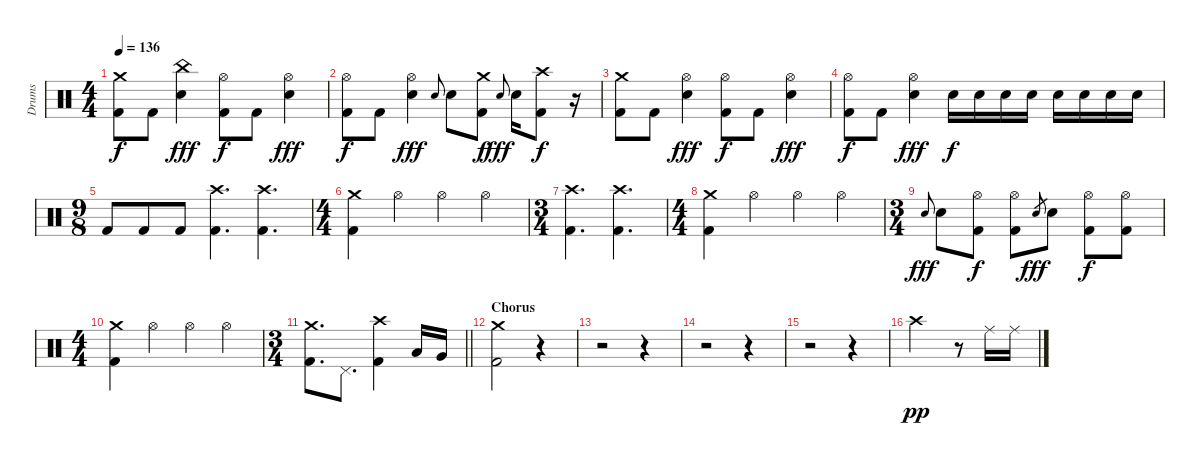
\track ("Drums" "Drums") {instrument percussion}
\staff {score}
\articulation defaults
\ts (4 4)
\tempo 136
\clef neutral
\ks c
("Crash medium (hit)" "Kick (hit) 2").8{dy f} "Kick (hit) 2".8 ("China (hit)" "Electric Snare (hit)").4{dy fff} ("Hi-Hat (open)" "Kick (hit) 2").8{dy f} "Kick (hit) 2".8 ("Hi-Hat (open)" "Electric Snare (hit)").4{dy fff} |
("Hi-Hat (open)" "Kick (hit) 2").8{dy f} "Kick (hit) 2".8 ("Hi-Hat (open)" "Electric Snare (hit)").4{dy fff} "Electric Snare (hit)".8{gr onbeat} "Electric Snare (hit)".8 ("Crash medium (hit)" "Kick (hit) 2").8{dy f} "Electric Snare (hit)".8{gr onbeat dy fff} "Electric Snare (hit)".16 ("Crash high (hit)" "Kick (hit) 2").8{dy f} r.16 |
("Crash medium (hit)" "Kick (hit) 2").8 "Kick (hit) 2".8 ("Hi-Hat (open)" "Electric Snare (hit)").4{dy fff} ("Hi-Hat (open)" "Kick (hit) 2").8{dy f} "Kick (hit) 2".8 ("Hi-Hat (open)" "Electric Snare (hit)").4{dy fff} |
("Hi-Hat (open)" "Kick (hit) 2").8{dy f} "Kick (hit) 2".8 ("Hi-Hat (open)" "Electric Snare (hit)").4{dy fff} "Electric Snare (hit)".16{dy f} "Electric Snare (hit)".16 "Electric Snare (hit)".16 "Electric Snare (hit)".16 "Electric Snare (hit)".16 "Electric Snare (hit)".16 "Electric Snare (hit)".16 "Electric Snare (hit)".16 |
\ts (9 8)
"Kick (hit) 2".8 "Kick (hit) 2".8 "Kick (hit) 2".8 ("Crash high (hit)" "Kick (hit) 2").4{d} ("Crash high (hit)" "Kick (hit) 2").4{d} |
\ts (4 4)
("Crash medium (hit)" "Kick (hit) 2").4 "Hi-Hat (open)".4 "Hi-Hat (open)".4 "Hi-Hat (open)".4 |
\ts (3 4)
("Crash high (hit)" "Kick (hit) 2").4{d} ("Crash high (hit)" "Kick (hit) 2").4{d} |
\ts (4 4)
("Crash medium (hit)" "Kick (hit) 2").4 "Hi-Hat (open)".4 "Hi-Hat (open)".4 "Hi-Hat (open)".4 |
\ts (3 4)
"Electric Snare (hit)".8{gr onbeat dy fff} "Electric Snare (hit)".8 ("Hi-Hat (open)" "Kick (hit) 2").8{dy f} ("Hi-Hat (open)" "Kick (hit) 2").8 "Electric Snare (hit)".8{gr dy fff} "Electric Snare (hit)".8 ("Hi-Hat (open)" "Kick (hit) 2").8{dy f} ("Hi-Hat (open)" "Kick (hit) 2").8 |
\ts (4 4)
("Crash medium (hit)" "Kick (hit) 2").4 "Hi-Hat (open)".4 "Hi-Hat (open)".4 "Hi-Hat (open)".4 |
\ts (3 4)
\barLineRight lightlight
("Crash medium (hit)" "Kick (hit) 2").8{d} "Pedal Hi-Hat (hit)".8{d} ("Crash high (hit)" "Kick (hit) 2").4 "Low Tom (hit)".16 "Very Low Tom (hit)".16 |
\section ("" "Chorus")
("Crash medium (hit)" "Kick (hit) 2").2 r.4 |
r.2 r.4 |
r.2 r.4 |
r.2 r.4 |
"Crash high (hit)".2{dy pp} r.8 "Ride (middle)".16 "Ride (middle)".16
